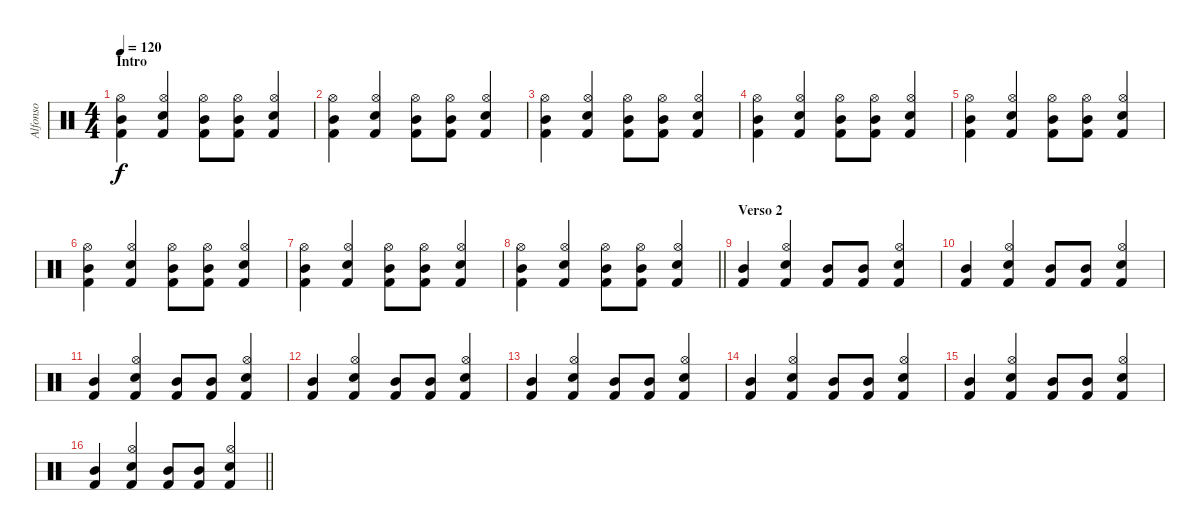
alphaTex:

\track ("Alfonso" "Alfonso") {instrument percussion}
\staff {score}
\articulation defaults
\ts (4 4)
\section ("" "Intro")
\tempo 120
\clef neutral
\ks c
("Kick (hit) 2" "Mid Tom (hit)" "Hi-Hat (open)").4{dy f} ("Kick (hit) 2" "Snare (hit) 2" "Hi-Hat (open)").4 ("Kick (hit) 2" "Mid Tom (hit)" "Hi-Hat (open)").8 ("Kick (hit) 2" "Mid Tom (hit)" "Hi-Hat (open)").8 ("Kick (hit) 2" "Snare (hit) 2" "Hi-Hat (open)").4 |
("Kick (hit) 2" "Mid Tom (hit)" "Hi-Hat (open)").4 ("Kick (hit) 2" "Snare (hit) 2" "Hi-Hat (open)").4 ("Kick (hit) 2" "Mid Tom (hit)" "Hi-Hat (open)").8 ("Kick (hit) 2" "Mid Tom (hit)" "Hi-Hat (open)").8 ("Kick (hit) 2" "Snare (hit) 2" "Hi-Hat (open)").4 |
("Kick (hit) 2" "Mid Tom (hit)" "Hi-Hat (open)").4 ("Kick (hit) 2" "Snare (hit) 2" "Hi-Hat (open)").4 ("Kick (hit) 2" "Mid Tom (hit)" "Hi-Hat (open)").8 ("Kick (hit) 2" "Mid Tom (hit)" "Hi-Hat (open)").8 ("Kick (hit) 2" "Snare (hit) 2" "Hi-Hat (open)").4 |
("Kick (hit) 2" "Mid Tom (hit)" "Hi-Hat (open)").4 ("Kick (hit) 2" "Snare (hit) 2" "Hi-Hat (open)").4 ("Kick (hit) 2" "Mid Tom (hit)" "Hi-Hat (open)").8 ("Kick (hit) 2" "Mid Tom (hit)" "Hi-Hat (open)").8 ("Kick (hit) 2" "Snare (hit) 2" "Hi-Hat (open)").4 |
("Kick (hit) 2" "Mid Tom (hit)" "Hi-Hat (open)").4 ("Kick (hit) 2" "Snare (hit) 2" "Hi-Hat (open)").4 ("Kick (hit) 2" "Mid Tom (hit)" "Hi-Hat (open)").8 ("Kick (hit) 2" "Mid Tom (hit)" "Hi-Hat (open)").8 ("Kick (hit) 2" "Snare (hit) 2" "Hi-Hat (open)").4 |
("Kick (hit) 2" "Mid Tom (hit)" "Hi-Hat (open)").4 ("Kick (hit) 2" "Snare (hit) 2" "Hi-Hat (open)").4 ("Kick (hit) 2" "Mid Tom (hit)" "Hi-Hat (open)").8 ("Kick (hit) 2" "Mid Tom (hit)" "Hi-Hat (open)").8 ("Kick (hit) 2" "Snare (hit) 2" "Hi-Hat (open)").4 |
("Kick (hit) 2" "Mid Tom (hit)" "Hi-Hat (open)").4 ("Kick (hit) 2" "Snare (hit) 2" "Hi-Hat (open)").4 ("Kick (hit) 2" "Mid Tom (hit)" "Hi-Hat (open)").8 ("Kick (hit) 2" "Mid Tom (hit)" "Hi-Hat (open)").8 ("Kick (hit) 2" "Snare (hit) 2" "Hi-Hat (open)").4 |
\barLineRight lightlight
("Kick (hit) 2" "Mid Tom (hit)" "Hi-Hat (open)").4 ("Kick (hit) 2" "Snare (hit) 2" "Hi-Hat (open)").4 ("Kick (hit) 2" "Mid Tom (hit)" "Hi-Hat (open)").8 ("Kick (hit) 2" "Mid Tom (hit)" "Hi-Hat (open)").8 ("Kick (hit) 2" "Snare (hit) 2" "Hi-Hat (open)").4 |
\section ("" "Verso 2")
("Kick (hit) 2" "Mid Tom (hit)").4 ("Kick (hit) 2" "Snare (hit) 2" "Hi-Hat (open)").4 ("Kick (hit) 2" "Mid Tom (hit)").8 ("Kick (hit) 2" "Mid Tom (hit)").8 ("Kick (hit) 2" "Snare (hit) 2" "Hi-Hat (open)").4 |
("Kick (hit) 2" "Mid Tom (hit)").4 ("Kick (hit) 2" "Snare (hit) 2" "Hi-Hat (open)").4 ("Kick (hit) 2" "Mid Tom (hit)").8 ("Kick (hit) 2" "Mid Tom (hit)").8 ("Kick (hit) 2" "Snare (hit) 2" "Hi-Hat (open)").4 |
("Kick (hit) 2" "Mid Tom (hit)").4 ("Kick (hit) 2" "Snare (hit) 2" "Hi-Hat (open)").4 ("Kick (hit) 2" "Mid Tom (hit)").8 ("Kick (hit) 2" "Mid Tom (hit)").8 ("Kick (hit) 2" "Snare (hit) 2" "Hi-Hat (open)").4 |
("Kick (hit) 2" "Mid Tom (hit)").4 ("Kick (hit) 2" "Snare (hit) 2" "Hi-Hat (open)").4 ("Kick (hit) 2" "Mid Tom (hit)").8 ("Kick (hit) 2" "Mid Tom (hit)").8 ("Kick (hit) 2" "Snare (hit) 2" "Hi-Hat (open)").4 |
("Kick (hit) 2" "Mid Tom (hit)").4 ("Kick (hit) 2" "Snare (hit) 2" "Hi-Hat (open)").4 ("Kick (hit) 2" "Mid Tom (hit)").8 ("Kick (hit) 2" "Mid Tom (hit)").8 ("Kick (hit) 2" "Snare (hit) 2" "Hi-Hat (open)").4 |
("Kick (hit) 2" "Mid Tom (hit)").4 ("Kick (hit) 2" "Snare (hit) 2" "Hi-Hat (open)").4 ("Kick (hit) 2" "Mid Tom (hit)").8 ("Kick (hit) 2" "Mid Tom (hit)").8 ("Kick (hit) 2" "Snare (hit) 2" "Hi-Hat (open)").4 |
("Kick (hit) 2" "Mid Tom (hit)").4 ("Kick (hit) 2" "Snare (hit) 2" "Hi-Hat (open)").4 ("Kick (hit) 2" "Mid Tom (hit)").8 ("Kick (hit) 2" "Mid Tom (hit)").8 ("Kick (hit) 2" "Snare (hit) 2" "Hi-Hat (open)").4 |
\barLineRight lightlight
("Kick (hit) 2" "Mid Tom (hit)").4 ("Kick (hit) 2" "Snare (hit) 2" "Hi-Hat (open)").4 ("Kick (hit) 2" "Mid Tom (hit)").8 ("Kick (hit) 2" "Mid Tom (hit)").8 ("Kick (hit) 2" "Snare (hit) 2" "Hi-Hat (open)").4
